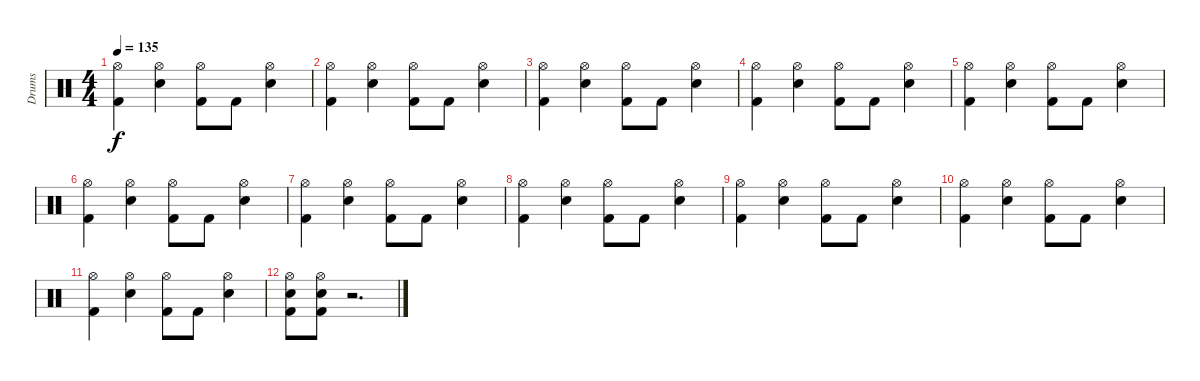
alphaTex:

\track ("Drums" "Drums") {instrument percussion}
\staff {score}
\articulation defaults
\ts (4 4)
\tempo 135
\clef neutral
\ks c
("Hi-Hat (open)" "Kick (hit) 2").4{dy f} ("Hi-Hat (open)" "Electric Snare (hit)").4 ("Hi-Hat (open)" "Kick (hit) 2").8 "Kick (hit) 2".8 ("Hi-Hat (open)" "Electric Snare (hit)").4 |
("Hi-Hat (open)" "Kick (hit) 2").4 ("Hi-Hat (open)" "Electric Snare (hit)").4 ("Hi-Hat (open)" "Kick (hit) 2").8 "Kick (hit) 2".8 ("Hi-Hat (open)" "Electric Snare (hit)").4 |
("Hi-Hat (open)" "Kick (hit) 2").4 ("Hi-Hat (open)" "Electric Snare (hit)").4 ("Hi-Hat (open)" "Kick (hit) 2").8 "Kick (hit) 2".8 ("Hi-Hat (open)" "Electric Snare (hit)").4 |
("Hi-Hat (open)" "Kick (hit) 2").4 ("Hi-Hat (open)" "Electric Snare (hit)").4 ("Hi-Hat (open)" "Kick (hit) 2").8 "Kick (hit) 2".8 ("Hi-Hat (open)" "Electric Snare (hit)").4 |
("Hi-Hat (open)" "Kick (hit) 2").4 ("Hi-Hat (open)" "Electric Snare (hit)").4 ("Hi-Hat (open)" "Kick (hit) 2").8 "Kick (hit) 2".8 ("Hi-Hat (open)" "Electric Snare (hit)").4 |
("Hi-Hat (open)" "Kick (hit) 2").4 ("Hi-Hat (open)" "Electric Snare (hit)").4 ("Hi-Hat (open)" "Kick (hit) 2").8 "Kick (hit) 2".8 ("Hi-Hat (open)" "Electric Snare (hit)").4 |
("Hi-Hat (open)" "Kick (hit) 2").4 ("Hi-Hat (open)" "Electric Snare (hit)").4 ("Hi-Hat (open)" "Kick (hit) 2").8 "Kick (hit) 2".8 ("Hi-Hat (open)" "Electric Snare (hit)").4 |
("Hi-Hat (open)" "Kick (hit) 2").4 ("Hi-Hat (open)" "Electric Snare (hit)").4 ("Hi-Hat (open)" "Kick (hit) 2").8 "Kick (hit) 2".8 ("Hi-Hat (open)" "Electric Snare (hit)").4 |
("Hi-Hat (open)" "Kick (hit) 2").4 ("Hi-Hat (open)" "Electric Snare (hit)").4 ("Hi-Hat (open)" "Kick (hit) 2").8 "Kick (hit) 2".8 ("Hi-Hat (open)" "Electric Snare (hit)").4 |
("Hi-Hat (open)" "Kick (hit) 2").4 ("Hi-Hat (open)" "Electric Snare (hit)").4 ("Hi-Hat (open)" "Kick (hit) 2").8 "Kick (hit) 2".8 ("Hi-Hat (open)" "Electric Snare (hit)").4 |
("Hi-Hat (open)" "Kick (hit) 2").4 ("Hi-Hat (open)" "Electric Snare (hit)").4 ("Hi-Hat (open)" "Kick (hit) 2").8 "Kick (hit) 2".8 ("Hi-Hat (open)" "Electric Snare (hit)").4 |
("Hi-Hat (open)" "Electric Snare (hit)" "Kick (hit) 2").8 ("Hi-Hat (open)" "Electric Snare (hit)" "Kick (hit) 2").8 r.2{d}
